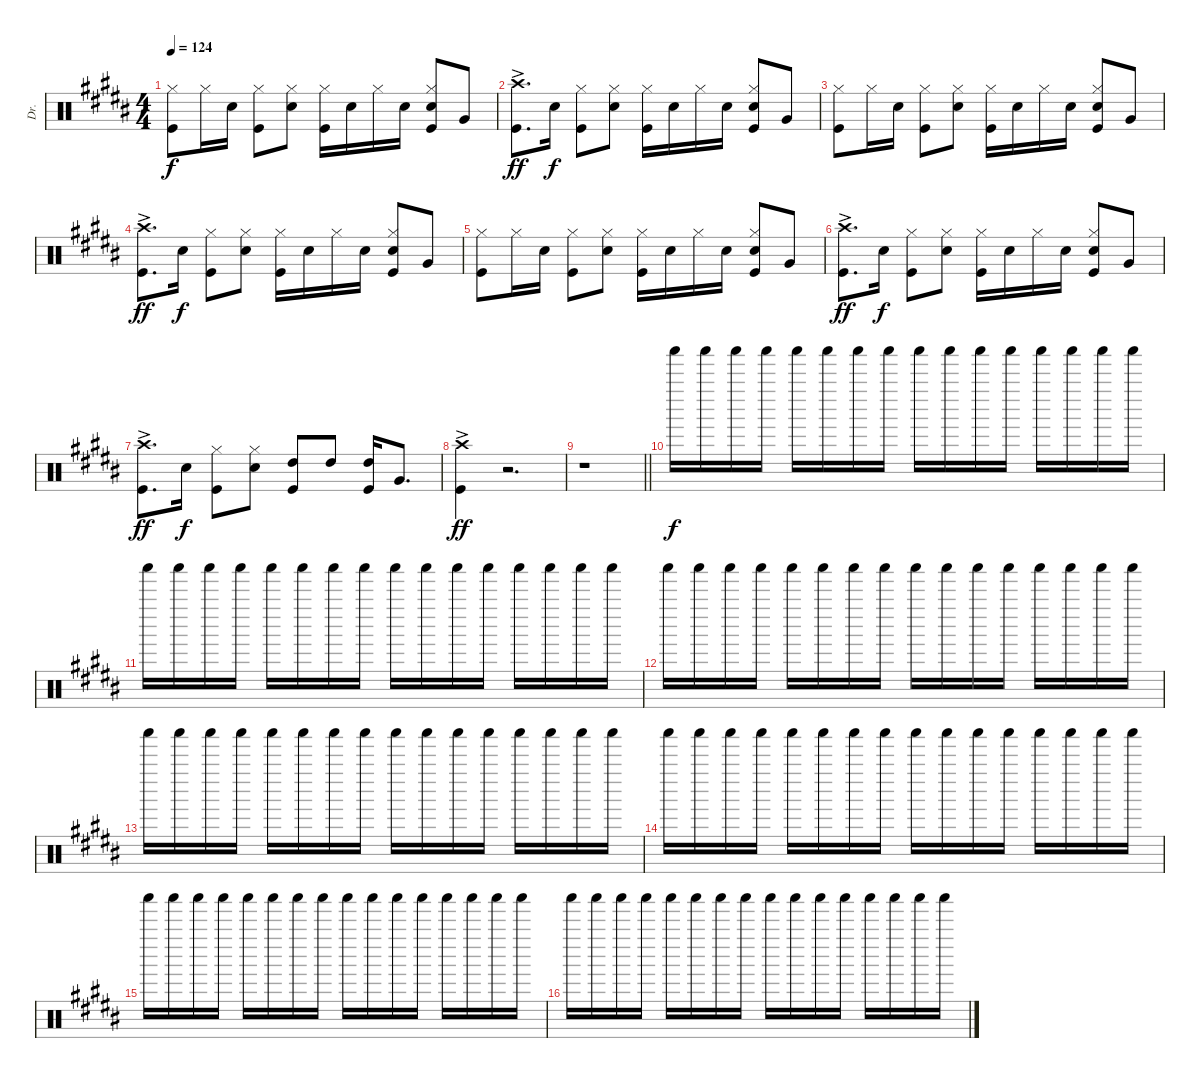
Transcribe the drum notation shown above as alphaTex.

\track ("Dr." "Dr.") {instrument percussion}
\staff {score}
\articulation defaults
\ts (4 4)
\tempo 124
\clef neutral
\ks b
("Kick (hit)" "Hi-Hat (closed)").8{dy f} "Hi-Hat (closed)".16 "Snare (hit) 2".16 ("Hi-Hat (closed)" "Kick (hit)").8 ("Hi-Hat (closed)" "Snare (hit) 2").8 ("Kick (hit)" "Hi-Hat (closed)").16 "Snare (hit) 2".16 "Hi-Hat (closed)".16 "Snare (hit) 2".16 ("Hi-Hat (closed)" "Kick (hit)" "Snare (hit) 2").8 "Very Low Tom (hit)".8 |
("Crash high (hit)"{ac} "Kick (hit)"{ac}).8{d dy ff} "Snare (hit) 2".16{dy f} ("Kick (hit)" "Hi-Hat (closed)").8 ("Hi-Hat (closed)" "Snare (hit) 2").8 ("Kick (hit)" "Hi-Hat (closed)").16 "Snare (hit) 2".16 "Hi-Hat (closed)".16 "Snare (hit) 2".16 ("Hi-Hat (closed)" "Kick (hit)" "Snare (hit) 2").8 "Very Low Tom (hit)".8 |
("Kick (hit)" "Hi-Hat (closed)").8 "Hi-Hat (closed)".16 "Snare (hit) 2".16 ("Hi-Hat (closed)" "Kick (hit)").8 ("Hi-Hat (closed)" "Snare (hit) 2").8 ("Kick (hit)" "Hi-Hat (closed)").16 "Snare (hit) 2".16 "Hi-Hat (closed)".16 "Snare (hit) 2".16 ("Hi-Hat (closed)" "Kick (hit)" "Snare (hit) 2").8 "Very Low Tom (hit)".8 |
("Crash high (hit)"{ac} "Kick (hit)"{ac}).8{d dy ff} "Snare (hit) 2".16{dy f} ("Kick (hit)" "Hi-Hat (closed)").8 ("Hi-Hat (closed)" "Snare (hit) 2").8 ("Kick (hit)" "Hi-Hat (closed)").16 "Snare (hit) 2".16 "Hi-Hat (closed)".16 "Snare (hit) 2".16 ("Hi-Hat (closed)" "Kick (hit)" "Snare (hit) 2").8 "Very Low Tom (hit)".8 |
("Kick (hit)" "Hi-Hat (closed)").8 "Hi-Hat (closed)".16 "Snare (hit) 2".16 ("Hi-Hat (closed)" "Kick (hit)").8 ("Hi-Hat (closed)" "Snare (hit) 2").8 ("Kick (hit)" "Hi-Hat (closed)").16 "Snare (hit) 2".16 "Hi-Hat (closed)".16 "Snare (hit) 2".16 ("Hi-Hat (closed)" "Kick (hit)" "Snare (hit) 2").8 "Very Low Tom (hit)".8 |
("Crash high (hit)"{ac} "Kick (hit)"{ac}).8{d dy ff} "Snare (hit) 2".16{dy f} ("Kick (hit)" "Hi-Hat (closed)").8 ("Hi-Hat (closed)" "Snare (hit) 2").8 ("Kick (hit)" "Hi-Hat (closed)").16 "Snare (hit) 2".16 "Hi-Hat (closed)".16 "Snare (hit) 2".16 ("Hi-Hat (closed)" "Kick (hit)" "Snare (hit) 2").8 "Very Low Tom (hit)".8 |
("Crash high (hit)"{ac} "Kick (hit)"{ac}).8{d dy ff} "Snare (hit) 2".16{dy f} ("Kick (hit)" "Hi-Hat (closed)").8 ("Hi-Hat (closed)" "Snare (hit) 2").8 ("Kick (hit)" "High Tom (hit)").8 "High Tom (hit)".8 ("High Tom (hit)" "Kick (hit)").16 "Very Low Tom (hit)".8{d} |
("Crash high (hit)"{ac} "Kick (hit)"{ac}).4{dy ff} r.2{d} |
\barLineRight lightlight
r.1 |
"Shaker (hit)".16{dy f volume 6} "Shaker (hit)".16 "Shaker (hit)".16 "Shaker (hit)".16 "Shaker (hit)".16 "Shaker (hit)".16 "Shaker (hit)".16 "Shaker (hit)".16 "Shaker (hit)".16 "Shaker (hit)".16 "Shaker (hit)".16 "Shaker (hit)".16 "Shaker (hit)".16 "Shaker (hit)".16 "Shaker (hit)".16 "Shaker (hit)".16 |
"Shaker (hit)".16 "Shaker (hit)".16 "Shaker (hit)".16 "Shaker (hit)".16 "Shaker (hit)".16 "Shaker (hit)".16 "Shaker (hit)".16 "Shaker (hit)".16 "Shaker (hit)".16 "Shaker (hit)".16 "Shaker (hit)".16 "Shaker (hit)".16 "Shaker (hit)".16 "Shaker (hit)".16 "Shaker (hit)".16 "Shaker (hit)".16 |
"Shaker (hit)".16 "Shaker (hit)".16 "Shaker (hit)".16 "Shaker (hit)".16 "Shaker (hit)".16 "Shaker (hit)".16 "Shaker (hit)".16 "Shaker (hit)".16 "Shaker (hit)".16 "Shaker (hit)".16 "Shaker (hit)".16 "Shaker (hit)".16 "Shaker (hit)".16 "Shaker (hit)".16 "Shaker (hit)".16 "Shaker (hit)".16 |
"Shaker (hit)".16 "Shaker (hit)".16 "Shaker (hit)".16 "Shaker (hit)".16 "Shaker (hit)".16 "Shaker (hit)".16 "Shaker (hit)".16 "Shaker (hit)".16 "Shaker (hit)".16 "Shaker (hit)".16 "Shaker (hit)".16 "Shaker (hit)".16 "Shaker (hit)".16 "Shaker (hit)".16 "Shaker (hit)".16 "Shaker (hit)".16 |
"Shaker (hit)".16 "Shaker (hit)".16 "Shaker (hit)".16 "Shaker (hit)".16 "Shaker (hit)".16 "Shaker (hit)".16 "Shaker (hit)".16 "Shaker (hit)".16 "Shaker (hit)".16 "Shaker (hit)".16 "Shaker (hit)".16 "Shaker (hit)".16 "Shaker (hit)".16 "Shaker (hit)".16 "Shaker (hit)".16 "Shaker (hit)".16 |
"Shaker (hit)".16 "Shaker (hit)".16 "Shaker (hit)".16 "Shaker (hit)".16 "Shaker (hit)".16 "Shaker (hit)".16 "Shaker (hit)".16 "Shaker (hit)".16 "Shaker (hit)".16 "Shaker (hit)".16 "Shaker (hit)".16 "Shaker (hit)".16 "Shaker (hit)".16 "Shaker (hit)".16 "Shaker (hit)".16 "Shaker (hit)".16 |
"Shaker (hit)".16 "Shaker (hit)".16 "Shaker (hit)".16 "Shaker (hit)".16 "Shaker (hit)".16 "Shaker (hit)".16 "Shaker (hit)".16 "Shaker (hit)".16 "Shaker (hit)".16 "Shaker (hit)".16 "Shaker (hit)".16 "Shaker (hit)".16 "Shaker (hit)".16 "Shaker (hit)".16 "Shaker (hit)".16 "Shaker (hit)".16
